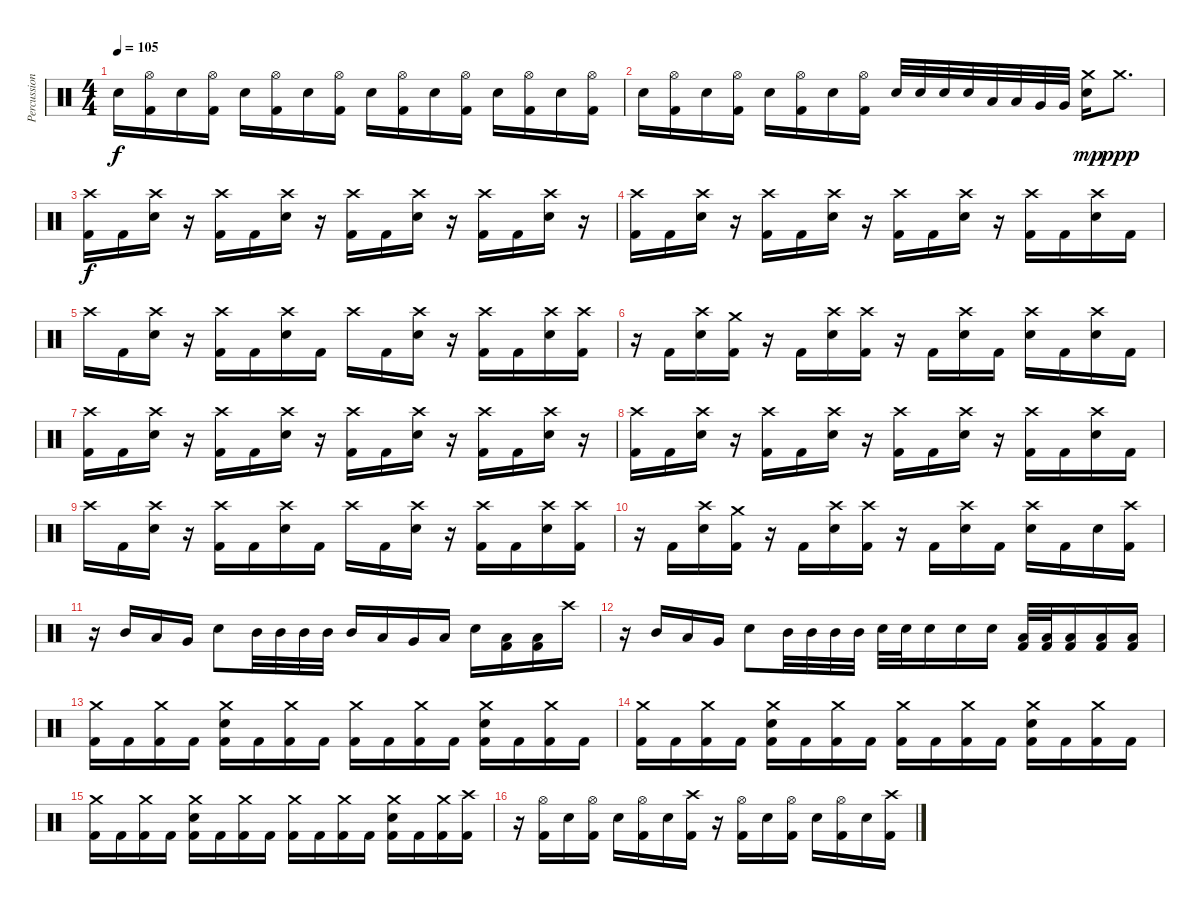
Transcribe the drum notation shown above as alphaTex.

\track ("Percussion" "Percussion") {instrument percussion}
\staff {score}
\articulation defaults
\ts (4 4)
\tempo 105
\clef neutral
\ks c "Electric Snare (hit)".16{dy f}
("Hi-Hat (open)" "Kick (hit) 2").16 "Electric Snare (hit)".16 ("Hi-Hat (open)" "Kick (hit) 2").16 "Electric Snare (hit)".16 ("Hi-Hat (open)" "Kick (hit) 2").16 "Electric Snare (hit)".16 ("Hi-Hat (open)" "Kick (hit) 2").16 "Electric Snare (hit)".16 ("Hi-Hat (open)" "Kick (hit) 2").16 "Electric Snare (hit)".16 ("Hi-Hat (open)" "Kick (hit) 2").16 "Electric Snare (hit)".16 ("Hi-Hat (open)" "Kick (hit) 2").16 "Electric Snare (hit)".16 ("Hi-Hat (open)" "Kick (hit) 2").16 |
"Electric Snare (hit)".16 ("Hi-Hat (open)" "Kick (hit) 2").16 "Electric Snare (hit)".16 ("Hi-Hat (open)" "Kick (hit) 2").16 "Electric Snare (hit)".16 ("Hi-Hat (open)" "Kick (hit) 2").16 "Electric Snare (hit)".16 ("Hi-Hat (open)" "Kick (hit) 2").16 "Electric Snare (hit)".32 "Electric Snare (hit)".32 "Electric Snare (hit)".32 "Electric Snare (hit)".32 "Low Tom (hit)".32 "Low Tom (hit)".32 "Very Low Tom (hit)".32 "Very Low Tom (hit)".32 ("Crash medium (hit)" "Electric Snare (hit)").16{dy mp} "Crash medium (hit)".8{d dy ppp} |
("Crash high (hit)" "Kick (hit) 2").16{dy f} "Kick (hit) 2".16 ("Crash high (hit)" "Electric Snare (hit)").16 r.16 ("Crash high (hit)" "Kick (hit) 2").16 "Kick (hit) 2".16 ("Crash high (hit)" "Electric Snare (hit)").16 r.16 ("Crash high (hit)" "Kick (hit) 2").16 "Kick (hit) 2".16 ("Crash high (hit)" "Electric Snare (hit)").16 r.16 ("Crash high (hit)" "Kick (hit) 2").16 "Kick (hit) 2".16 ("Crash high (hit)" "Electric Snare (hit)").16 r.16 |
("Crash high (hit)" "Kick (hit) 2").16 "Kick (hit) 2".16 ("Crash high (hit)" "Electric Snare (hit)").16 r.16 ("Crash high (hit)" "Kick (hit) 2").16 "Kick (hit) 2".16 ("Crash high (hit)" "Electric Snare (hit)").16 r.16 ("Crash high (hit)" "Kick (hit) 2").16 "Kick (hit) 2".16 ("Crash high (hit)" "Electric Snare (hit)").16 r.16 ("Crash high (hit)" "Kick (hit) 2").16 "Kick (hit) 2".16 ("Crash high (hit)" "Electric Snare (hit)").16 "Kick (hit) 2".16 |
"Crash high (hit)".16 "Kick (hit) 2".16 ("Crash high (hit)" "Electric Snare (hit)").16 r.16 ("Crash high (hit)" "Kick (hit) 2").16 "Kick (hit) 2".16 ("Crash high (hit)" "Electric Snare (hit)").16 "Kick (hit) 2".16 "Crash high (hit)".16 "Kick (hit) 2".16 ("Crash high (hit)" "Electric Snare (hit)").16 r.16 ("Crash high (hit)" "Kick (hit) 2").16 "Kick (hit) 2".16 ("Crash high (hit)" "Electric Snare (hit)").16 ("Crash high (hit)" "Kick (hit) 2").16 |
r.16 "Kick (hit) 2".16 ("Crash high (hit)" "Electric Snare (hit)").16 ("Crash medium (hit)" "Kick (hit) 2").16 r.16 "Kick (hit) 2".16 ("Crash high (hit)" "Electric Snare (hit)").16 ("Crash high (hit)" "Kick (hit) 2").16 r.16 "Kick (hit) 2".16 ("Crash high (hit)" "Electric Snare (hit)").16 "Kick (hit) 2".16 ("Crash high (hit)" "Electric Snare (hit)").16 "Kick (hit) 2".16 ("Crash high (hit)" "Electric Snare (hit)").16 "Kick (hit) 2".16 |
("Crash high (hit)" "Kick (hit) 2").16 "Kick (hit) 2".16 ("Crash high (hit)" "Electric Snare (hit)").16 r.16 ("Crash high (hit)" "Kick (hit) 2").16 "Kick (hit) 2".16 ("Crash high (hit)" "Electric Snare (hit)").16 r.16 ("Crash high (hit)" "Kick (hit) 2").16 "Kick (hit) 2".16 ("Crash high (hit)" "Electric Snare (hit)").16 r.16 ("Crash high (hit)" "Kick (hit) 2").16 "Kick (hit) 2".16 ("Crash high (hit)" "Electric Snare (hit)").16 r.16 |
("Crash high (hit)" "Kick (hit) 2").16 "Kick (hit) 2".16 ("Crash high (hit)" "Electric Snare (hit)").16 r.16 ("Crash high (hit)" "Kick (hit) 2").16 "Kick (hit) 2".16 ("Crash high (hit)" "Electric Snare (hit)").16 r.16 ("Crash high (hit)" "Kick (hit) 2").16 "Kick (hit) 2".16 ("Crash high (hit)" "Electric Snare (hit)").16 r.16 ("Crash high (hit)" "Kick (hit) 2").16 "Kick (hit) 2".16 ("Crash high (hit)" "Electric Snare (hit)").16 "Kick (hit) 2".16 |
"Crash high (hit)".16 "Kick (hit) 2".16 ("Crash high (hit)" "Electric Snare (hit)").16 r.16 ("Crash high (hit)" "Kick (hit) 2").16 "Kick (hit) 2".16 ("Crash high (hit)" "Electric Snare (hit)").16 "Kick (hit) 2".16 "Crash high (hit)".16 "Kick (hit) 2".16 ("Crash high (hit)" "Electric Snare (hit)").16 r.16 ("Crash high (hit)" "Kick (hit) 2").16 "Kick (hit) 2".16 ("Crash high (hit)" "Electric Snare (hit)").16 ("Crash high (hit)" "Kick (hit) 2").16 |
r.16 "Kick (hit) 2".16 ("Crash high (hit)" "Electric Snare (hit)").16 ("Crash medium (hit)" "Kick (hit) 2").16 r.16 "Kick (hit) 2".16 ("Crash high (hit)" "Electric Snare (hit)").16 ("Crash high (hit)" "Kick (hit) 2").16 r.16 "Kick (hit) 2".16 ("Crash high (hit)" "Electric Snare (hit)").16 "Kick (hit) 2".16 ("Crash high (hit)" "Electric Snare (hit)").16 "Kick (hit) 2".16 "Electric Snare (hit)".16 ("Crash high (hit)" "Kick (hit) 2").16 |
r.16 "Mid Tom (hit)".16 "Low Tom (hit)".16 "Very Low Tom (hit)".16 "Electric Snare (hit)".8 "Mid Tom (hit)".32 "Mid Tom (hit)".32 "Mid Tom (hit)".32 "Mid Tom (hit)".32 "Mid Tom (hit)".16 "Low Tom (hit)".16 "Very Low Tom (hit)".16 "Low Floor Tom (hit)".16 "Electric Snare (hit)".16 ("Low Floor Tom (hit)" "Kick (hit) 2").16 ("Low Floor Tom (hit)" "Kick (hit) 2").16 "Crash high (hit)".16 |
r.16 "Mid Tom (hit)".16 "Low Tom (hit)".16 "Very Low Tom (hit)".16 "Electric Snare (hit)".8 "Mid Tom (hit)".32 "Mid Tom (hit)".32 "Mid Tom (hit)".32 "Mid Tom (hit)".32 "Electric Snare (hit)".32 "Electric Snare (hit)".32 "Electric Snare (hit)".16 "Electric Snare (hit)".16 "Electric Snare (hit)".16 ("Low Tom (hit)" "Kick (hit) 2").32 ("Low Tom (hit)" "Kick (hit) 2").32 ("Low Tom (hit)" "Kick (hit) 2").16 ("Low Tom (hit)" "Kick (hit) 2").16 ("Low Tom (hit)" "Kick (hit) 2").16 |
("Crash medium (hit)" "Kick (hit) 2").16 "Kick (hit) 2".16 ("Crash medium (hit)" "Kick (hit) 2").16 "Kick (hit) 2".16 ("Crash medium (hit)" "Electric Snare (hit)" "Kick (hit) 2").16 "Kick (hit) 2".16 ("Crash medium (hit)" "Kick (hit) 2").16 "Kick (hit) 2".16 ("Crash medium (hit)" "Kick (hit) 2").16 "Kick (hit) 2".16 ("Crash medium (hit)" "Kick (hit) 2").16 "Kick (hit) 2".16 ("Crash medium (hit)" "Electric Snare (hit)" "Kick (hit) 2").16 "Kick (hit) 2".16 ("Crash medium (hit)" "Kick (hit) 2").16 "Kick (hit) 2".16 |
("Crash medium (hit)" "Kick (hit) 2").16 "Kick (hit) 2".16 ("Crash medium (hit)" "Kick (hit) 2").16 "Kick (hit) 2".16 ("Crash medium (hit)" "Electric Snare (hit)" "Kick (hit) 2").16 "Kick (hit) 2".16 ("Crash medium (hit)" "Kick (hit) 2").16 "Kick (hit) 2".16 ("Crash medium (hit)" "Kick (hit) 2").16 "Kick (hit) 2".16 ("Crash medium (hit)" "Kick (hit) 2").16 "Kick (hit) 2".16 ("Crash medium (hit)" "Electric Snare (hit)" "Kick (hit) 2").16 "Kick (hit) 2".16 ("Crash medium (hit)" "Kick (hit) 2").16 "Kick (hit) 2".16 |
("Crash medium (hit)" "Kick (hit) 2").16 "Kick (hit) 2".16 ("Crash medium (hit)" "Kick (hit) 2").16 "Kick (hit) 2".16 ("Crash medium (hit)" "Electric Snare (hit)" "Kick (hit) 2").16 "Kick (hit) 2".16 ("Crash medium (hit)" "Kick (hit) 2").16 "Kick (hit) 2".16 ("Crash medium (hit)" "Kick (hit) 2").16 "Kick (hit) 2".16 ("Crash medium (hit)" "Kick (hit) 2").16 "Kick (hit) 2".16 ("Crash medium (hit)" "Electric Snare (hit)" "Kick (hit) 2").16 "Kick (hit) 2".16 ("Crash medium (hit)" "Kick (hit) 2").16 ("Crash high (hit)" "Kick (hit) 2").16 |
r.16 ("Hi-Hat (open)" "Kick (hit) 2").16 "Electric Snare (hit)".16 ("Hi-Hat (open)" "Kick (hit) 2").16 "Electric Snare (hit)".16 ("Hi-Hat (open)" "Kick (hit) 2").16 "Electric Snare (hit)".16 ("Crash high (hit)" "Kick (hit) 2").16 r.16 ("Hi-Hat (open)" "Kick (hit) 2").16 "Electric Snare (hit)".16 ("Hi-Hat (open)" "Kick (hit) 2").16 "Electric Snare (hit)".16 ("Hi-Hat (open)" "Kick (hit) 2").16 "Electric Snare (hit)".16 ("Crash high (hit)" "Kick (hit) 2").16
